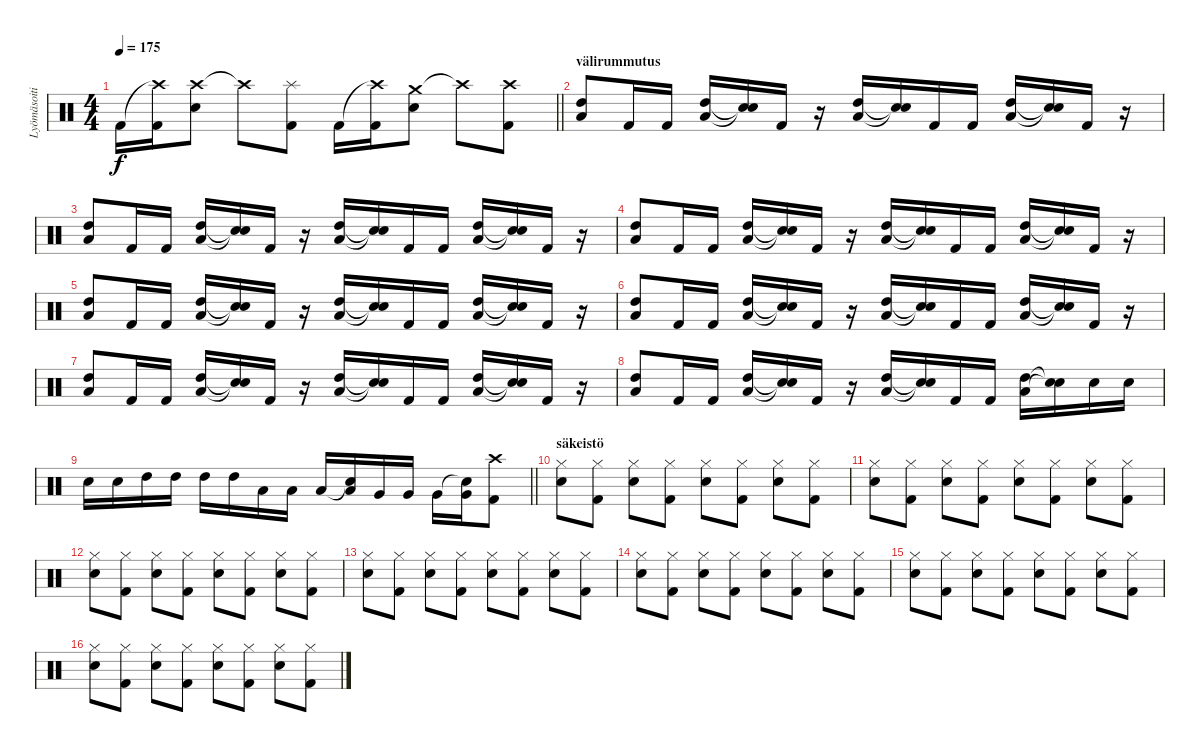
\track ("Lyömäsoitin" "Lyömäsoiti") {instrument percussion}
\staff {score}
\articulation defaults
\ts (4 4)
\tempo 175
\clef neutral
\barLineRight lightlight
\ks c "Kick (hit) 2".16{dy f}
("Crash high (hit)"{t} "Kick (hit) 2").16 ("Crash high (hit)" "Electric Snare (hit)").8 "Crash high (hit)"{t}.8 ("Splash (hit)" "Kick (hit) 2").8 "Kick (hit) 2".16 ("Crash high (hit)"{t} "Kick (hit) 2").16 ("Crash medium (hit)" "Electric Snare (hit)").8 "Crash high (hit)"{t}.8 ("Crash high (hit)" "Kick (hit) 2").8 |
\section ("" "välirummutus")
("High Tom (hit)" "Low Tom (hit)").8 "Kick (hit) 2".16 "Kick (hit) 2".16 ("High Tom (hit)" "Low Tom (hit)").16 ("Snare (hit)"{t} "Snare (hit)"{t}).16 "Kick (hit) 2".16 r.16 ("High Tom (hit)" "Low Tom (hit)").16 ("Snare (hit)"{t} "Snare (hit)"{t}).16 "Kick (hit) 2".16 "Kick (hit) 2".16 ("High Tom (hit)" "Low Tom (hit)").16 ("Snare (hit)"{t} "Snare (hit)"{t}).16 "Kick (hit) 2".16 r.16 |
("High Tom (hit)" "Low Tom (hit)").8 "Kick (hit) 2".16 "Kick (hit) 2".16 ("High Tom (hit)" "Low Tom (hit)").16 ("Snare (hit)"{t} "Snare (hit)"{t}).16 "Kick (hit) 2".16 r.16 ("High Tom (hit)" "Low Tom (hit)").16 ("Snare (hit)"{t} "Snare (hit)"{t}).16 "Kick (hit) 2".16 "Kick (hit) 2".16 ("High Tom (hit)" "Low Tom (hit)").16 ("Snare (hit)"{t} "Snare (hit)"{t}).16 "Kick (hit) 2".16 r.16 |
("High Tom (hit)" "Low Tom (hit)").8 "Kick (hit) 2".16 "Kick (hit) 2".16 ("High Tom (hit)" "Low Tom (hit)").16 ("Snare (hit)"{t} "Snare (hit)"{t}).16 "Kick (hit) 2".16 r.16 ("High Tom (hit)" "Low Tom (hit)").16 ("Snare (hit)"{t} "Snare (hit)"{t}).16 "Kick (hit) 2".16 "Kick (hit) 2".16 ("High Tom (hit)" "Low Tom (hit)").16 ("Snare (hit)"{t} "Snare (hit)"{t}).16 "Kick (hit) 2".16 r.16 |
("High Tom (hit)" "Low Tom (hit)").8 "Kick (hit) 2".16 "Kick (hit) 2".16 ("High Tom (hit)" "Low Tom (hit)").16 ("Snare (hit)"{t} "Snare (hit)"{t}).16 "Kick (hit) 2".16 r.16 ("High Tom (hit)" "Low Tom (hit)").16 ("Snare (hit)"{t} "Snare (hit)"{t}).16 "Kick (hit) 2".16 "Kick (hit) 2".16 ("High Tom (hit)" "Low Tom (hit)").16 ("Snare (hit)"{t} "Snare (hit)"{t}).16 "Kick (hit) 2".16 r.16 |
("High Tom (hit)" "Low Tom (hit)").8 "Kick (hit) 2".16 "Kick (hit) 2".16 ("High Tom (hit)" "Low Tom (hit)").16 ("Snare (hit)"{t} "Snare (hit)"{t}).16 "Kick (hit) 2".16 r.16 ("High Tom (hit)" "Low Tom (hit)").16 ("Snare (hit)"{t} "Snare (hit)"{t}).16 "Kick (hit) 2".16 "Kick (hit) 2".16 ("High Tom (hit)" "Low Tom (hit)").16 ("Snare (hit)"{t} "Snare (hit)"{t}).16 "Kick (hit) 2".16 r.16 |
("High Tom (hit)" "Low Tom (hit)").8 "Kick (hit) 2".16 "Kick (hit) 2".16 ("High Tom (hit)" "Low Tom (hit)").16 ("Snare (hit)"{t} "Snare (hit)"{t}).16 "Kick (hit) 2".16 r.16 ("High Tom (hit)" "Low Tom (hit)").16 ("Snare (hit)"{t} "Snare (hit)"{t}).16 "Kick (hit) 2".16 "Kick (hit) 2".16 ("High Tom (hit)" "Low Tom (hit)").16 ("Snare (hit)"{t} "Snare (hit)"{t}).16 "Kick (hit) 2".16 r.16 |
("High Tom (hit)" "Low Tom (hit)").8 "Kick (hit) 2".16 "Kick (hit) 2".16 ("High Tom (hit)" "Low Tom (hit)").16 ("Snare (hit)"{t} "Snare (hit)"{t}).16 "Kick (hit) 2".16 r.16 ("High Tom (hit)" "Low Tom (hit)").16 ("Snare (hit)"{t} "Snare (hit)"{t}).16 "Kick (hit) 2".16 "Kick (hit) 2".16 ("High Tom (hit)" "Low Tom (hit)").16 ("Snare (hit)"{t} "Snare (hit)"{t}).16 "Electric Snare (hit)".16 "Electric Snare (hit)".16 |
\barLineRight lightlight "Electric Snare (hit)".16 "Electric Snare (hit)".16 "High Tom (hit)".16 "High Tom (hit)".16 "High Tom (hit)".16 "High Tom (hit)".16 "Low Tom (hit)".16 "Low Tom (hit)".16 "Low Tom (hit)".16
("Snare (hit)"{t} "Low Tom (hit)").16 "Very Low Tom (hit)".16 "Very Low Tom (hit)".16 "Very Low Tom (hit)".16 ("Snare (hit)"{t} "Very Low Tom (hit)").16 ("Crash high (hit)" "Kick (hit) 2").8 |
\section ("" "säkeistö")
("Hi-Hat (closed)" "Electric Snare (hit)").8 ("Hi-Hat (closed)" "Kick (hit) 2").8 ("Hi-Hat (closed)" "Electric Snare (hit)").8 ("Hi-Hat (closed)" "Kick (hit) 2").8 ("Hi-Hat (closed)" "Electric Snare (hit)").8 ("Hi-Hat (closed)" "Kick (hit) 2").8 ("Hi-Hat (closed)" "Electric Snare (hit)").8 ("Hi-Hat (closed)" "Kick (hit) 2").8 |
("Hi-Hat (closed)" "Electric Snare (hit)").8 ("Hi-Hat (closed)" "Kick (hit) 2").8 ("Hi-Hat (closed)" "Electric Snare (hit)").8 ("Hi-Hat (closed)" "Kick (hit) 2").8 ("Hi-Hat (closed)" "Electric Snare (hit)").8 ("Hi-Hat (closed)" "Kick (hit) 2").8 ("Hi-Hat (closed)" "Electric Snare (hit)").8 ("Hi-Hat (closed)" "Kick (hit) 2").8 |
("Hi-Hat (closed)" "Electric Snare (hit)").8 ("Hi-Hat (closed)" "Kick (hit) 2").8 ("Hi-Hat (closed)" "Electric Snare (hit)").8 ("Hi-Hat (closed)" "Kick (hit) 2").8 ("Hi-Hat (closed)" "Electric Snare (hit)").8 ("Hi-Hat (closed)" "Kick (hit) 2").8 ("Hi-Hat (closed)" "Electric Snare (hit)").8 ("Hi-Hat (closed)" "Kick (hit) 2").8 |
("Hi-Hat (closed)" "Electric Snare (hit)").8 ("Hi-Hat (closed)" "Kick (hit) 2").8 ("Hi-Hat (closed)" "Electric Snare (hit)").8 ("Hi-Hat (closed)" "Kick (hit) 2").8 ("Hi-Hat (closed)" "Electric Snare (hit)").8 ("Hi-Hat (closed)" "Kick (hit) 2").8 ("Hi-Hat (closed)" "Electric Snare (hit)").8 ("Hi-Hat (closed)" "Kick (hit) 2").8 |
("Hi-Hat (closed)" "Electric Snare (hit)").8 ("Hi-Hat (closed)" "Kick (hit) 2").8 ("Hi-Hat (closed)" "Electric Snare (hit)").8 ("Hi-Hat (closed)" "Kick (hit) 2").8 ("Hi-Hat (closed)" "Electric Snare (hit)").8 ("Hi-Hat (closed)" "Kick (hit) 2").8 ("Hi-Hat (closed)" "Electric Snare (hit)").8 ("Hi-Hat (closed)" "Kick (hit) 2").8 |
("Hi-Hat (closed)" "Electric Snare (hit)").8 ("Hi-Hat (closed)" "Kick (hit) 2").8 ("Hi-Hat (closed)" "Electric Snare (hit)").8 ("Hi-Hat (closed)" "Kick (hit) 2").8 ("Hi-Hat (closed)" "Electric Snare (hit)").8 ("Hi-Hat (closed)" "Kick (hit) 2").8 ("Hi-Hat (closed)" "Electric Snare (hit)").8 ("Hi-Hat (closed)" "Kick (hit) 2").8 |
("Hi-Hat (closed)" "Electric Snare (hit)").8 ("Hi-Hat (closed)" "Kick (hit) 2").8 ("Hi-Hat (closed)" "Electric Snare (hit)").8 ("Hi-Hat (closed)" "Kick (hit) 2").8 ("Hi-Hat (closed)" "Electric Snare (hit)").8 ("Hi-Hat (closed)" "Kick (hit) 2").8 ("Hi-Hat (closed)" "Electric Snare (hit)").8 ("Hi-Hat (closed)" "Kick (hit) 2").8
